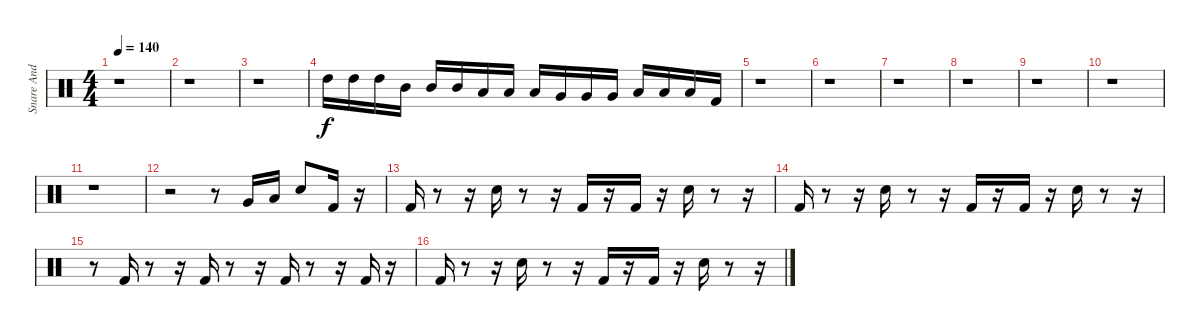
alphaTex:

\track ("Snare And Bass Drums" "Snare And ") {instrument percussion}
\staff {score}
\articulation defaults
\ts (4 4)
\tempo 140
\clef neutral
\ks c
r.1{dy f} |
r.1 |
r.1 |
"High Tom (hit)".16 "High Tom (hit)".16 "High Tom (hit)".16 "Mid Tom (hit)".16 "Mid Tom (hit)".16 "Mid Tom (hit)".16 "Low Tom (hit)".16 "Low Tom (hit)".16 "Low Tom (hit)".16 "Very Low Tom (hit)".16 "Very Low Tom (hit)".16 "Very Low Tom (hit)".16 "Low Floor Tom (hit)".16 "Low Floor Tom (hit)".16 "Low Floor Tom (hit)".16 "Kick (hit) 2".16 |
r.1 |
r.1 |
r.1 |
r.1 |
r.1 |
r.1 |
r.1 |
r.2 r.8 "Very Low Tom (hit)".16 "Low Floor Tom (hit)".16 "Snare (hit) 2".8 "Kick (hit) 2".16 r.16 |
"Kick (hit) 2".16 r.8 r.16 "Snare (hit) 2".16 r.8 r.16 "Kick (hit) 2".16 r.16 "Kick (hit) 2".16 r.16 "Snare (hit) 2".16 r.8 r.16 |
"Kick (hit) 2".16 r.8 r.16 "Snare (hit) 2".16 r.8 r.16 "Kick (hit) 2".16 r.16 "Kick (hit) 2".16 r.16 "Snare (hit) 2".16 r.8 r.16 |
r.8 "Kick (hit) 2".16 r.8 r.16 "Kick (hit) 2".16 r.8 r.16 "Kick (hit) 2".16 r.8 r.16 "Kick (hit) 2".16 r.16 |
"Kick (hit) 2".16 r.8 r.16 "Snare (hit) 2".16 r.8 r.16 "Kick (hit) 2".16 r.16 "Kick (hit) 2".16 r.16 "Snare (hit) 2".16 r.8 r.16
